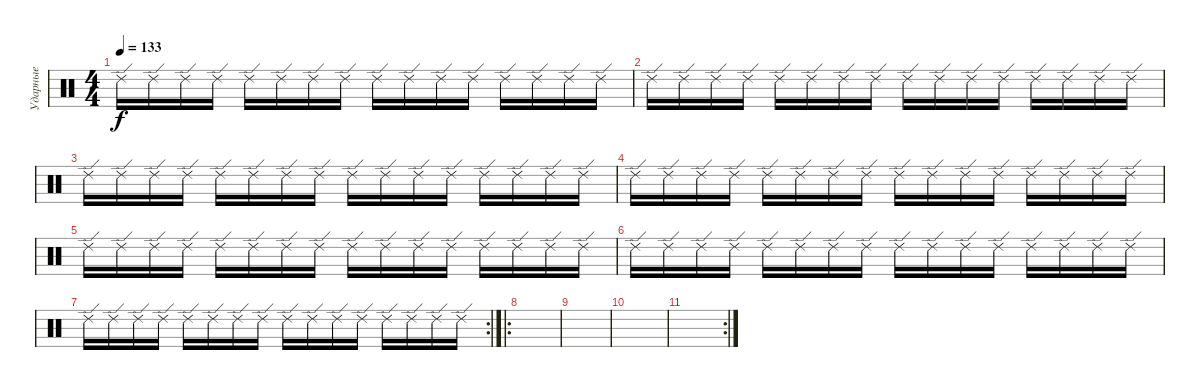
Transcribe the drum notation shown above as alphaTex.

\track ("Ударные" "Ударные") {instrument percussion}
\staff {score}
\articulation defaults
\ts (4 4)
\tempo 133
\clef neutral
\ks c "Ride (edge) 2".16{dy f} "Ride (edge) 2".16 "Ride (edge) 2".16 "Ride (edge) 2".16 "Ride (edge) 2".16 "Ride (edge) 2".16 "Ride (edge) 2".16 "Ride (edge) 2".16 "Ride (edge) 2".16 "Ride (edge) 2".16 "Ride (edge) 2".16 "Ride (edge) 2".16 "Ride (edge) 2".16 "Ride (edge) 2".16 "Ride (edge) 2".16 "Ride (edge) 2".16
|
"Ride (edge) 2".16 "Ride (edge) 2".16 "Ride (edge) 2".16 "Ride (edge) 2".16 "Ride (edge) 2".16 "Ride (edge) 2".16 "Ride (edge) 2".16 "Ride (edge) 2".16 "Ride (edge) 2".16 "Ride (edge) 2".16 "Ride (edge) 2".16 "Ride (edge) 2".16 "Ride (edge) 2".16 "Ride (edge) 2".16 "Ride (edge) 2".16 "Ride (edge) 2".16 |
"Ride (edge) 2".16 "Ride (edge) 2".16 "Ride (edge) 2".16 "Ride (edge) 2".16 "Ride (edge) 2".16 "Ride (edge) 2".16 "Ride (edge) 2".16 "Ride (edge) 2".16 "Ride (edge) 2".16 "Ride (edge) 2".16 "Ride (edge) 2".16 "Ride (edge) 2".16 "Ride (edge) 2".16 "Ride (edge) 2".16 "Ride (edge) 2".16 "Ride (edge) 2".16 |
"Ride (edge) 2".16 "Ride (edge) 2".16 "Ride (edge) 2".16 "Ride (edge) 2".16 "Ride (edge) 2".16 "Ride (edge) 2".16 "Ride (edge) 2".16 "Ride (edge) 2".16 "Ride (edge) 2".16 "Ride (edge) 2".16 "Ride (edge) 2".16 "Ride (edge) 2".16 "Ride (edge) 2".16 "Ride (edge) 2".16 "Ride (edge) 2".16 "Ride (edge) 2".16 |
"Ride (edge) 2".16 "Ride (edge) 2".16 "Ride (edge) 2".16 "Ride (edge) 2".16 "Ride (edge) 2".16 "Ride (edge) 2".16 "Ride (edge) 2".16 "Ride (edge) 2".16 "Ride (edge) 2".16 "Ride (edge) 2".16 "Ride (edge) 2".16 "Ride (edge) 2".16 "Ride (edge) 2".16 "Ride (edge) 2".16 "Ride (edge) 2".16 "Ride (edge) 2".16 |
"Ride (edge) 2".16 "Ride (edge) 2".16 "Ride (edge) 2".16 "Ride (edge) 2".16 "Ride (edge) 2".16 "Ride (edge) 2".16 "Ride (edge) 2".16 "Ride (edge) 2".16 "Ride (edge) 2".16 "Ride (edge) 2".16 "Ride (edge) 2".16 "Ride (edge) 2".16 "Ride (edge) 2".16 "Ride (edge) 2".16 "Ride (edge) 2".16 "Ride (edge) 2".16 |
\rc 2 "Ride (edge) 2".16 "Ride (edge) 2".16 "Ride (edge) 2".16 "Ride (edge) 2".16 "Ride (edge) 2".16 "Ride (edge) 2".16 "Ride (edge) 2".16 "Ride (edge) 2".16 "Ride (edge) 2".16 "Ride (edge) 2".16 "Ride (edge) 2".16 "Ride (edge) 2".16 "Ride (edge) 2".16 "Ride (edge) 2".16 "Ride (edge) 2".16 "Ride (edge) 2".16
|
\ro
|
|
|
\rc 2
